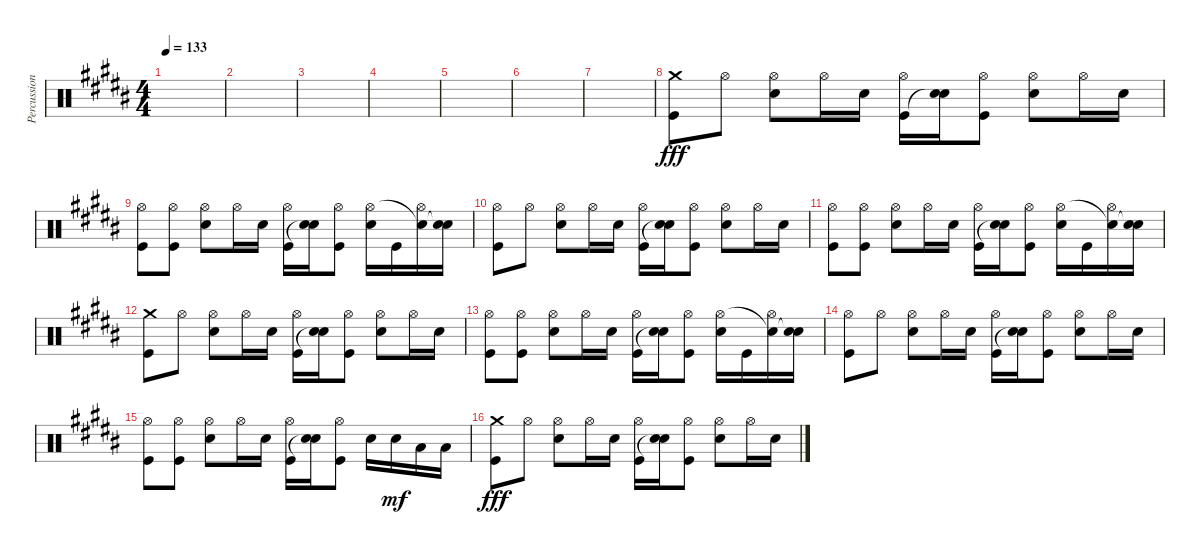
\track ("Percussion" "Percussion") {instrument percussion}
\staff {score}
\articulation defaults
\ts (4 4)
\tempo 133
\clef neutral
\ks b
|
|
|
|
|
|
|
("Crash medium (hit)" "Kick (hit)").8{dy fff} "Hi-Hat (open)".8 ("Hi-Hat (open)" "Electric Snare (hit)").8 "Hi-Hat (open)".16 "Electric Snare (hit)".16 ("Hi-Hat (open)" "Kick (hit)").16 ("Electric Snare (hit)" "Snare (hit)"{t}).16 ("Hi-Hat (open)" "Kick (hit)").8 ("Hi-Hat (open)" "Electric Snare (hit)").8 "Hi-Hat (open)".16 "Electric Snare (hit)".16 |
("Kick (hit)" "Hi-Hat (open)").8 ("Kick (hit)" "Hi-Hat (open)").8 ("Electric Snare (hit)" "Hi-Hat (open)").8 "Hi-Hat (open)".16 "Electric Snare (hit)".16 ("Kick (hit)" "Hi-Hat (open)").16 ("Snare (hit)"{t} "Electric Snare (hit)").16 ("Kick (hit)" "Hi-Hat (open)").8 ("Electric Snare (hit)" "Hi-Hat (open)").16 "Kick (hit)".16 ("Hi-Hat (open)" "Snare (hit)"{t}).16 ("Electric Snare (hit)" "Snare (hit)"{t}).16 |
("Hi-Hat (open)" "Kick (hit)").8 "Hi-Hat (open)".8 ("Hi-Hat (open)" "Electric Snare (hit)").8 "Hi-Hat (open)".16 "Electric Snare (hit)".16 ("Hi-Hat (open)" "Kick (hit)").16 ("Electric Snare (hit)" "Snare (hit)"{t}).16 ("Hi-Hat (open)" "Kick (hit)").8 ("Hi-Hat (open)" "Electric Snare (hit)").8 "Hi-Hat (open)".16 "Electric Snare (hit)".16 |
("Kick (hit)" "Hi-Hat (open)").8 ("Kick (hit)" "Hi-Hat (open)").8 ("Electric Snare (hit)" "Hi-Hat (open)").8 "Hi-Hat (open)".16 "Electric Snare (hit)".16 ("Kick (hit)" "Hi-Hat (open)").16 ("Snare (hit)"{t} "Electric Snare (hit)").16 ("Kick (hit)" "Hi-Hat (open)").8 ("Electric Snare (hit)" "Hi-Hat (open)").16 "Kick (hit)".16 ("Hi-Hat (open)" "Snare (hit)"{t}).16 ("Electric Snare (hit)" "Snare (hit)"{t}).16 |
("Crash medium (hit)" "Kick (hit)").8 "Hi-Hat (open)".8 ("Hi-Hat (open)" "Electric Snare (hit)").8 "Hi-Hat (open)".16 "Electric Snare (hit)".16 ("Hi-Hat (open)" "Kick (hit)").16 ("Electric Snare (hit)" "Snare (hit)"{t}).16 ("Hi-Hat (open)" "Kick (hit)").8 ("Hi-Hat (open)" "Electric Snare (hit)").8 "Hi-Hat (open)".16 "Electric Snare (hit)".16 |
("Kick (hit)" "Hi-Hat (open)").8 ("Kick (hit)" "Hi-Hat (open)").8 ("Electric Snare (hit)" "Hi-Hat (open)").8 "Hi-Hat (open)".16 "Electric Snare (hit)".16 ("Kick (hit)" "Hi-Hat (open)").16 ("Snare (hit)"{t} "Electric Snare (hit)").16 ("Kick (hit)" "Hi-Hat (open)").8 ("Electric Snare (hit)" "Hi-Hat (open)").16 "Kick (hit)".16 ("Hi-Hat (open)" "Snare (hit)"{t}).16 ("Electric Snare (hit)" "Snare (hit)"{t}).16 |
("Hi-Hat (open)" "Kick (hit)").8 "Hi-Hat (open)".8 ("Hi-Hat (open)" "Electric Snare (hit)").8 "Hi-Hat (open)".16 "Electric Snare (hit)".16 ("Hi-Hat (open)" "Kick (hit)").16 ("Electric Snare (hit)" "Snare (hit)"{t}).16 ("Hi-Hat (open)" "Kick (hit)").8 ("Hi-Hat (open)" "Electric Snare (hit)").8 "Hi-Hat (open)".16 "Electric Snare (hit)".16 |
("Kick (hit)" "Hi-Hat (open)").8 ("Kick (hit)" "Hi-Hat (open)").8 ("Electric Snare (hit)" "Hi-Hat (open)").8 "Hi-Hat (open)".16 "Electric Snare (hit)".16 ("Kick (hit)" "Hi-Hat (open)").16 ("Snare (hit)"{t} "Electric Snare (hit)").16 ("Kick (hit)" "Hi-Hat (open)").8 "Electric Snare (hit)".16 "Electric Snare (hit)".16{dy mf} "Low Tom (hit)".16 "Low Tom (hit)".16 |
("Crash medium (hit)" "Kick (hit)").8{dy fff} "Hi-Hat (open)".8 ("Hi-Hat (open)" "Electric Snare (hit)").8 "Hi-Hat (open)".16 "Electric Snare (hit)".16 ("Hi-Hat (open)" "Kick (hit)").16 ("Electric Snare (hit)" "Snare (hit)"{t}).16 ("Hi-Hat (open)" "Kick (hit)").8 ("Hi-Hat (open)" "Electric Snare (hit)").8 "Hi-Hat (open)".16 "Electric Snare (hit)".16
